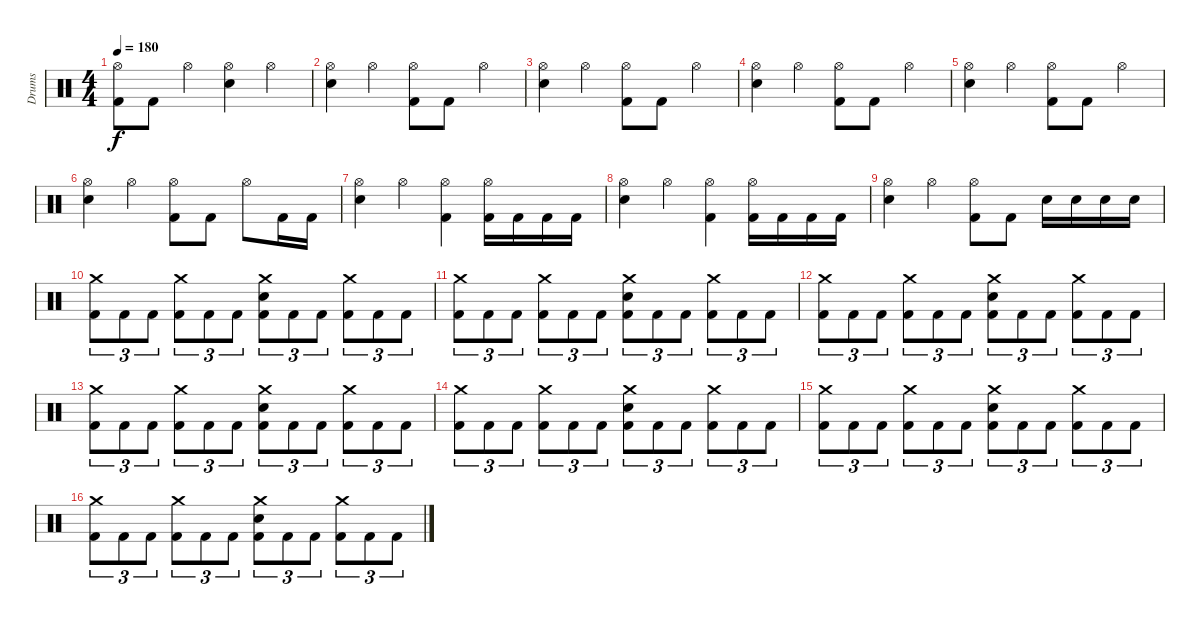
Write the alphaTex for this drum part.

\track ("Drums" "Drums") {instrument percussion}
\staff {score}
\articulation defaults
\ts (4 4)
\tempo 180
\clef neutral
\ks c
("Hi-Hat (open)" "Kick (hit) 2").8{dy f} "Kick (hit) 2".8 "Hi-Hat (open)".4 ("Hi-Hat (open)" "Electric Snare (hit)").4 "Hi-Hat (open)".4 |
("Hi-Hat (open)" "Electric Snare (hit)").4 "Hi-Hat (open)".4 ("Hi-Hat (open)" "Kick (hit) 2").8 "Kick (hit) 2".8 "Hi-Hat (open)".4 |
("Hi-Hat (open)" "Electric Snare (hit)").4 "Hi-Hat (open)".4 ("Hi-Hat (open)" "Kick (hit) 2").8 "Kick (hit) 2".8 "Hi-Hat (open)".4 |
("Hi-Hat (open)" "Electric Snare (hit)").4 "Hi-Hat (open)".4 ("Hi-Hat (open)" "Kick (hit) 2").8 "Kick (hit) 2".8 "Hi-Hat (open)".4 |
("Hi-Hat (open)" "Electric Snare (hit)").4 "Hi-Hat (open)".4 ("Hi-Hat (open)" "Kick (hit) 2").8 "Kick (hit) 2".8 "Hi-Hat (open)".4 |
("Hi-Hat (open)" "Electric Snare (hit)").4 "Hi-Hat (open)".4 ("Hi-Hat (open)" "Kick (hit) 2").8 "Kick (hit) 2".8 "Hi-Hat (open)".8 "Kick (hit) 2".16 "Kick (hit) 2".16 |
("Hi-Hat (open)" "Electric Snare (hit)").4 "Hi-Hat (open)".4 ("Hi-Hat (open)" "Kick (hit) 2").4 ("Hi-Hat (open)" "Kick (hit) 2").16 "Kick (hit) 2".16 "Kick (hit) 2".16 "Kick (hit) 2".16 |
("Hi-Hat (open)" "Electric Snare (hit)").4 "Hi-Hat (open)".4 ("Hi-Hat (open)" "Kick (hit) 2").4 ("Hi-Hat (open)" "Kick (hit) 2").16 "Kick (hit) 2".16 "Kick (hit) 2".16 "Kick (hit) 2".16 |
("Hi-Hat (open)" "Electric Snare (hit)").4 "Hi-Hat (open)".4 ("Hi-Hat (open)" "Kick (hit) 2").8 "Kick (hit) 2".8 "Electric Snare (hit)".16 "Electric Snare (hit)".16 "Electric Snare (hit)".16 "Electric Snare (hit)".16 |
("Crash medium (hit)" "Kick (hit) 2").8{tu (3 2)} "Kick (hit) 2".8{tu (3 2)} "Kick (hit) 2".8{tu (3 2)} ("Crash medium (hit)" "Kick (hit) 2").8{tu (3 2)} "Kick (hit) 2".8{tu (3 2)} "Kick (hit) 2".8{tu (3 2)} ("Crash medium (hit)" "Electric Snare (hit)" "Kick (hit) 2").8{tu (3 2)} "Kick (hit) 2".8{tu (3 2)} "Kick (hit) 2".8{tu (3 2)} ("Crash medium (hit)" "Kick (hit) 2").8{tu (3 2)} "Kick (hit) 2".8{tu (3 2)} "Kick (hit) 2".8{tu (3 2)} |
("Crash medium (hit)" "Kick (hit) 2").8{tu (3 2)} "Kick (hit) 2".8{tu (3 2)} "Kick (hit) 2".8{tu (3 2)} ("Crash medium (hit)" "Kick (hit) 2").8{tu (3 2)} "Kick (hit) 2".8{tu (3 2)} "Kick (hit) 2".8{tu (3 2)} ("Crash medium (hit)" "Electric Snare (hit)" "Kick (hit) 2").8{tu (3 2)} "Kick (hit) 2".8{tu (3 2)} "Kick (hit) 2".8{tu (3 2)} ("Crash medium (hit)" "Kick (hit) 2").8{tu (3 2)} "Kick (hit) 2".8{tu (3 2)} "Kick (hit) 2".8{tu (3 2)} |
("Crash medium (hit)" "Kick (hit) 2").8{tu (3 2)} "Kick (hit) 2".8{tu (3 2)} "Kick (hit) 2".8{tu (3 2)} ("Crash medium (hit)" "Kick (hit) 2").8{tu (3 2)} "Kick (hit) 2".8{tu (3 2)} "Kick (hit) 2".8{tu (3 2)} ("Crash medium (hit)" "Electric Snare (hit)" "Kick (hit) 2").8{tu (3 2)} "Kick (hit) 2".8{tu (3 2)} "Kick (hit) 2".8{tu (3 2)} ("Crash medium (hit)" "Kick (hit) 2").8{tu (3 2)} "Kick (hit) 2".8{tu (3 2)} "Kick (hit) 2".8{tu (3 2)} |
("Crash medium (hit)" "Kick (hit) 2").8{tu (3 2)} "Kick (hit) 2".8{tu (3 2)} "Kick (hit) 2".8{tu (3 2)} ("Crash medium (hit)" "Kick (hit) 2").8{tu (3 2)} "Kick (hit) 2".8{tu (3 2)} "Kick (hit) 2".8{tu (3 2)} ("Crash medium (hit)" "Electric Snare (hit)" "Kick (hit) 2").8{tu (3 2)} "Kick (hit) 2".8{tu (3 2)} "Kick (hit) 2".8{tu (3 2)} ("Crash medium (hit)" "Kick (hit) 2").8{tu (3 2)} "Kick (hit) 2".8{tu (3 2)} "Kick (hit) 2".8{tu (3 2)} |
("Crash medium (hit)" "Kick (hit) 2").8{tu (3 2)} "Kick (hit) 2".8{tu (3 2)} "Kick (hit) 2".8{tu (3 2)} ("Crash medium (hit)" "Kick (hit) 2").8{tu (3 2)} "Kick (hit) 2".8{tu (3 2)} "Kick (hit) 2".8{tu (3 2)} ("Crash medium (hit)" "Electric Snare (hit)" "Kick (hit) 2").8{tu (3 2)} "Kick (hit) 2".8{tu (3 2)} "Kick (hit) 2".8{tu (3 2)} ("Crash medium (hit)" "Kick (hit) 2").8{tu (3 2)} "Kick (hit) 2".8{tu (3 2)} "Kick (hit) 2".8{tu (3 2)} |
("Crash medium (hit)" "Kick (hit) 2").8{tu (3 2)} "Kick (hit) 2".8{tu (3 2)} "Kick (hit) 2".8{tu (3 2)} ("Crash medium (hit)" "Kick (hit) 2").8{tu (3 2)} "Kick (hit) 2".8{tu (3 2)} "Kick (hit) 2".8{tu (3 2)} ("Crash medium (hit)" "Electric Snare (hit)" "Kick (hit) 2").8{tu (3 2)} "Kick (hit) 2".8{tu (3 2)} "Kick (hit) 2".8{tu (3 2)} ("Crash medium (hit)" "Kick (hit) 2").8{tu (3 2)} "Kick (hit) 2".8{tu (3 2)} "Kick (hit) 2".8{tu (3 2)} |
("Crash medium (hit)" "Kick (hit) 2").8{tu (3 2)} "Kick (hit) 2".8{tu (3 2)} "Kick (hit) 2".8{tu (3 2)} ("Crash medium (hit)" "Kick (hit) 2").8{tu (3 2)} "Kick (hit) 2".8{tu (3 2)} "Kick (hit) 2".8{tu (3 2)} ("Crash medium (hit)" "Electric Snare (hit)" "Kick (hit) 2").8{tu (3 2)} "Kick (hit) 2".8{tu (3 2)} "Kick (hit) 2".8{tu (3 2)} ("Crash medium (hit)" "Kick (hit) 2").8{tu (3 2)} "Kick (hit) 2".8{tu (3 2)} "Kick (hit) 2".8{tu (3 2)}
